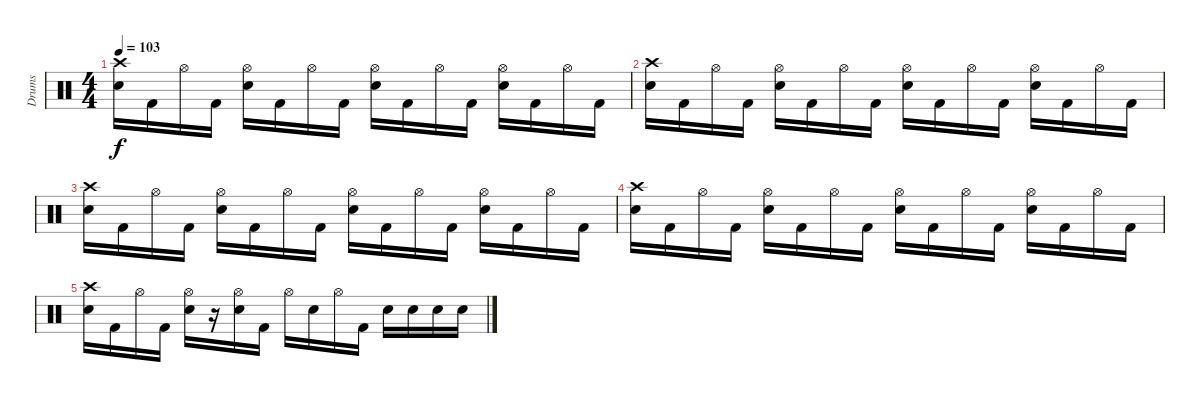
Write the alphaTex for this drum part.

\track ("Drums" "Drums") {instrument percussion}
\staff {score}
\articulation defaults
\ts (4 4)
\tempo 103
\clef neutral
\ks c
("Crash high (hit)" "Electric Snare (hit)").16{dy f} "Kick (hit) 2".16 "Hi-Hat (open)".16 "Kick (hit) 2".16 ("Hi-Hat (open)" "Electric Snare (hit)").16 "Kick (hit) 2".16 "Hi-Hat (open)".16 "Kick (hit) 2".16 ("Hi-Hat (open)" "Electric Snare (hit)").16 "Kick (hit) 2".16 "Hi-Hat (open)".16 "Kick (hit) 2".16 ("Hi-Hat (open)" "Electric Snare (hit)").16 "Kick (hit) 2".16 "Hi-Hat (open)".16 "Kick (hit) 2".16 |
("Crash high (hit)" "Electric Snare (hit)").16 "Kick (hit) 2".16 "Hi-Hat (open)".16 "Kick (hit) 2".16 ("Hi-Hat (open)" "Electric Snare (hit)").16 "Kick (hit) 2".16 "Hi-Hat (open)".16 "Kick (hit) 2".16 ("Hi-Hat (open)" "Electric Snare (hit)").16 "Kick (hit) 2".16 "Hi-Hat (open)".16 "Kick (hit) 2".16 ("Hi-Hat (open)" "Electric Snare (hit)").16 "Kick (hit) 2".16 "Hi-Hat (open)".16 "Kick (hit) 2".16 |
("Crash high (hit)" "Electric Snare (hit)").16 "Kick (hit) 2".16 "Hi-Hat (open)".16 "Kick (hit) 2".16 ("Hi-Hat (open)" "Electric Snare (hit)").16 "Kick (hit) 2".16 "Hi-Hat (open)".16 "Kick (hit) 2".16 ("Hi-Hat (open)" "Electric Snare (hit)").16 "Kick (hit) 2".16 "Hi-Hat (open)".16 "Kick (hit) 2".16 ("Hi-Hat (open)" "Electric Snare (hit)").16 "Kick (hit) 2".16 "Hi-Hat (open)".16 "Kick (hit) 2".16 |
("Crash high (hit)" "Electric Snare (hit)").16 "Kick (hit) 2".16 "Hi-Hat (open)".16 "Kick (hit) 2".16 ("Hi-Hat (open)" "Electric Snare (hit)").16 "Kick (hit) 2".16 "Hi-Hat (open)".16 "Kick (hit) 2".16 ("Hi-Hat (open)" "Electric Snare (hit)").16 "Kick (hit) 2".16 "Hi-Hat (open)".16 "Kick (hit) 2".16 ("Hi-Hat (open)" "Electric Snare (hit)").16 "Kick (hit) 2".16 "Hi-Hat (open)".16 "Kick (hit) 2".16 |
("Crash high (hit)" "Electric Snare (hit)").16 "Kick (hit) 2".16 "Hi-Hat (open)".16 "Kick (hit) 2".16 ("Hi-Hat (open)" "Electric Snare (hit)").16 r.16 ("Hi-Hat (open)" "Electric Snare (hit)").16 "Kick (hit) 2".16 "Hi-Hat (open)".16 "Electric Snare (hit)".16 "Hi-Hat (open)".16 "Kick (hit) 2".16 "Electric Snare (hit)".16 "Electric Snare (hit)".16 "Electric Snare (hit)".16 "Electric Snare (hit)".16
